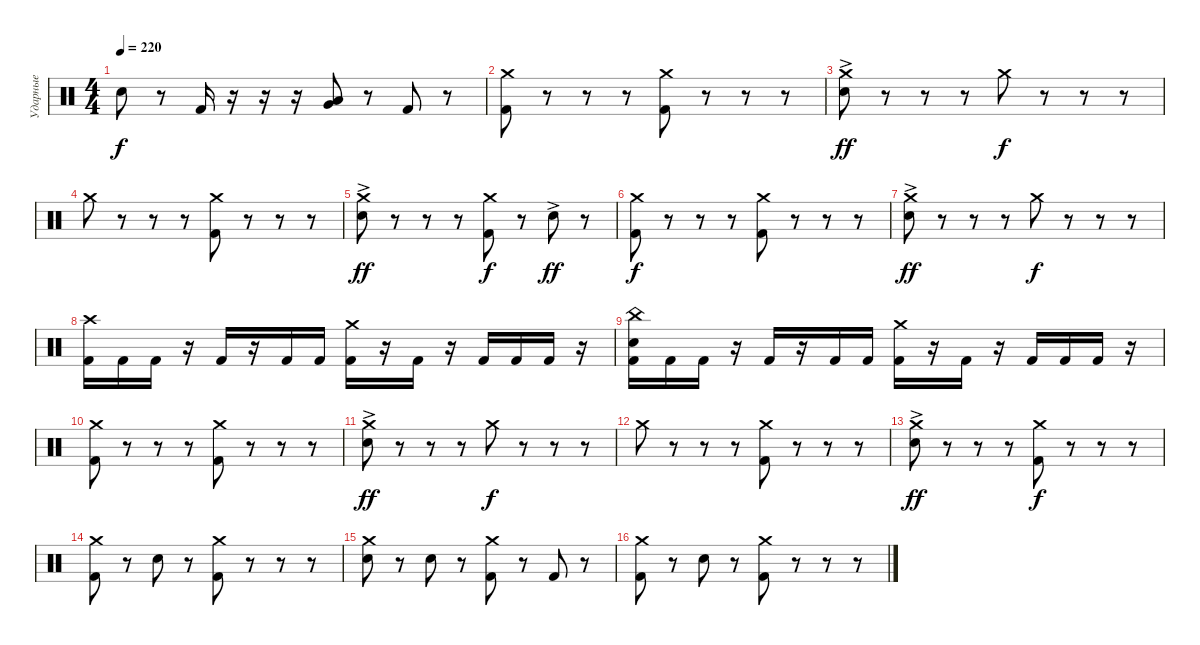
\track ("Ударные" "Ударные") {instrument percussion}
\staff {score}
\articulation defaults
\ts (4 4)
\tempo 220
\clef neutral
\ks c "Electric Snare (hit)".8{dy f}
r.8 "Kick (hit) 2".16 r.16 r.16 r.16 ("Very Low Tom (hit)" "Low Floor Tom (hit)").8 r.8 "Kick (hit) 2".8 r.8 |
("Kick (hit) 2" "Crash medium (hit)").8 r.8 r.8 r.8 ("Kick (hit) 2" "Crash medium (hit)").8 r.8 r.8 r.8 |
("Electric Snare (hit)"{ac} "Crash medium (hit)").8{dy ff} r.8 r.8 r.8 "Crash medium (hit)".8{dy f} r.8 r.8 r.8 |
"Crash medium (hit)".8 r.8 r.8 r.8 ("Kick (hit) 2" "Crash medium (hit)").8 r.8 r.8 r.8 |
("Electric Snare (hit)"{ac} "Crash medium (hit)").8{dy ff} r.8 r.8 r.8 ("Kick (hit) 2" "Crash medium (hit)").8{dy f} r.8 "Electric Snare (hit)"{ac}.8{dy ff} r.8 |
("Kick (hit) 2" "Crash medium (hit)").8{dy f} r.8 r.8 r.8 ("Kick (hit) 2" "Crash medium (hit)").8 r.8 r.8 r.8 |
("Electric Snare (hit)"{ac} "Crash medium (hit)").8{dy ff} r.8 r.8 r.8 "Crash medium (hit)".8{dy f} r.8 r.8 r.8 |
("Kick (hit) 2" "Crash high (hit)").16 "Kick (hit) 2".16 "Kick (hit) 2".16 r.16 "Kick (hit) 2".16 r.16 "Kick (hit) 2".16 "Kick (hit) 2".16 ("Kick (hit) 2" "Crash medium (hit)").16 r.16 "Kick (hit) 2".16 r.16 "Kick (hit) 2".16 "Kick (hit) 2".16 "Kick (hit) 2".16 r.16 |
("Kick (hit) 2" "Electric Snare (hit)" "China (hit)").16 "Kick (hit) 2".16 "Kick (hit) 2".16 r.16 "Kick (hit) 2".16 r.16 "Kick (hit) 2".16 "Kick (hit) 2".16 ("Kick (hit) 2" "Crash medium (hit)").16 r.16 "Kick (hit) 2".16 r.16 "Kick (hit) 2".16 "Kick (hit) 2".16 "Kick (hit) 2".16 r.16 |
("Kick (hit) 2" "Crash medium (hit)").8 r.8 r.8 r.8 ("Kick (hit) 2" "Crash medium (hit)").8 r.8 r.8 r.8 |
("Electric Snare (hit)"{ac} "Crash medium (hit)").8{dy ff} r.8 r.8 r.8 "Crash medium (hit)".8{dy f} r.8 r.8 r.8 |
"Crash medium (hit)".8 r.8 r.8 r.8 ("Kick (hit) 2" "Crash medium (hit)").8 r.8 r.8 r.8 |
("Electric Snare (hit)"{ac} "Crash medium (hit)").8{dy ff} r.8 r.8 r.8 ("Kick (hit) 2" "Crash medium (hit)").8{dy f} r.8 r.8 r.8 |
("Kick (hit) 2" "Crash medium (hit)").8 r.8 "Electric Snare (hit)".8 r.8 ("Kick (hit) 2" "Crash medium (hit)").8 r.8 r.8 r.8 |
("Electric Snare (hit)" "Crash medium (hit)").8 r.8 "Electric Snare (hit)".8 r.8 ("Kick (hit) 2" "Crash medium (hit)").8 r.8 "Kick (hit) 2".8 r.8 |
("Kick (hit) 2" "Crash medium (hit)").8 r.8 "Electric Snare (hit)".8 r.8 ("Kick (hit) 2" "Crash medium (hit)").8 r.8 r.8 r.8
